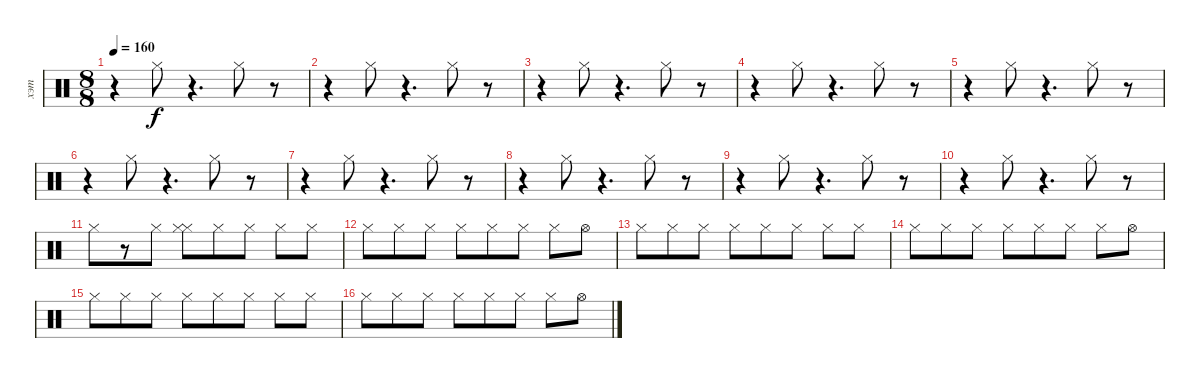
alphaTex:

\track ("хэт" "хэт") {instrument percussion}
\staff {score}
\articulation defaults
\ts (8 8)
\tempo 160
\clef neutral
\ks c
r.4{dy f} "Hi-Hat (closed)".8 r.4{d} "Hi-Hat (closed)".8 r.8 |
r.4 "Hi-Hat (closed)".8 r.4{d} "Hi-Hat (closed)".8 r.8 |
r.4 "Hi-Hat (closed)".8 r.4{d} "Hi-Hat (closed)".8 r.8 |
r.4 "Hi-Hat (closed)".8 r.4{d} "Hi-Hat (closed)".8 r.8 |
r.4 "Hi-Hat (closed)".8 r.4{d} "Hi-Hat (closed)".8 r.8 |
r.4 "Hi-Hat (closed)".8 r.4{d} "Hi-Hat (closed)".8 r.8 |
r.4 "Hi-Hat (closed)".8 r.4{d} "Hi-Hat (closed)".8 r.8 |
r.4 "Hi-Hat (closed)".8 r.4{d} "Hi-Hat (closed)".8 r.8 |
r.4 "Hi-Hat (closed)".8 r.4{d} "Hi-Hat (closed)".8 r.8 |
r.4 "Hi-Hat (closed)".8 r.4{d} "Hi-Hat (closed)".8 r.8 |
"Hi-Hat (closed)".8 r.8 "Hi-Hat (closed)".8 ("Hi-Hat (closed)" "Hi-Hat (closed)").8 "Hi-Hat (closed)".8 "Hi-Hat (closed)".8 "Hi-Hat (closed)".8 "Hi-Hat (closed)".8 |
"Hi-Hat (closed)".8 "Hi-Hat (closed)".8 "Hi-Hat (closed)".8 "Hi-Hat (closed)".8 "Hi-Hat (closed)".8 "Hi-Hat (closed)".8 "Hi-Hat (closed)".8 "Hi-Hat (open)".8 |
"Hi-Hat (closed)".8 "Hi-Hat (closed)".8 "Hi-Hat (closed)".8 "Hi-Hat (closed)".8 "Hi-Hat (closed)".8 "Hi-Hat (closed)".8 "Hi-Hat (closed)".8 "Hi-Hat (closed)".8 |
"Hi-Hat (closed)".8 "Hi-Hat (closed)".8 "Hi-Hat (closed)".8 "Hi-Hat (closed)".8 "Hi-Hat (closed)".8 "Hi-Hat (closed)".8 "Hi-Hat (closed)".8 "Hi-Hat (open)".8 |
"Hi-Hat (closed)".8 "Hi-Hat (closed)".8 "Hi-Hat (closed)".8 "Hi-Hat (closed)".8 "Hi-Hat (closed)".8 "Hi-Hat (closed)".8 "Hi-Hat (closed)".8 "Hi-Hat (closed)".8 |
"Hi-Hat (closed)".8 "Hi-Hat (closed)".8 "Hi-Hat (closed)".8 "Hi-Hat (closed)".8 "Hi-Hat (closed)".8 "Hi-Hat (closed)".8 "Hi-Hat (closed)".8 "Hi-Hat (open)".8
